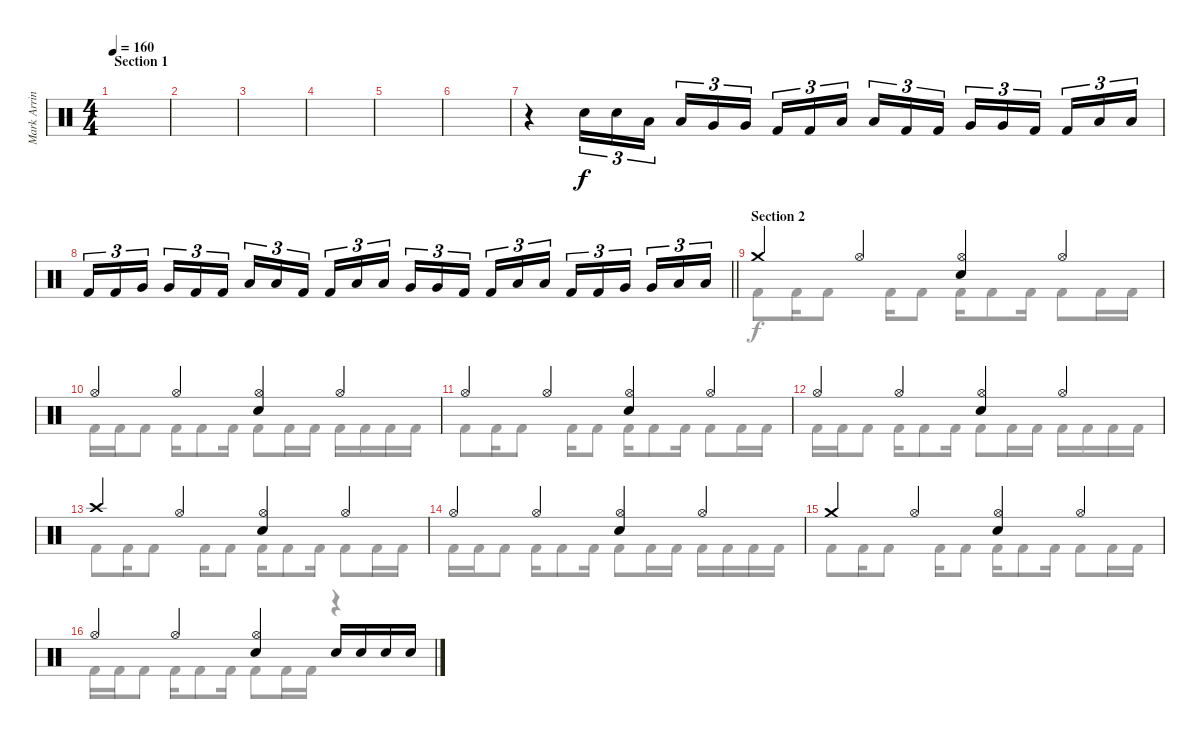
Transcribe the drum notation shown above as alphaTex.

\track ("Mark Arrington – drums" "Mark Arrin") {instrument percussion}
\staff {score}
\articulation defaults
\voice
\ts (4 4)
\section ("" "Section 1")
\tempo 160
\clef neutral
\ks c
|
|
|
|
|
|
r.4 "Electric Snare (hit)".16{tu (3 2)} "Electric Snare (hit)".16{tu (3 2)} "Low Tom (hit)".16{tu (3 2) beam splitsecondary} "Low Tom (hit)".16{tu (3 2)} "Very Low Tom (hit)".16{tu (3 2)} "Very Low Tom (hit)".16{tu (3 2)} "Kick (hit) 2".16{tu (3 2)} "Kick (hit) 2".16{tu (3 2)} "Low Tom (hit)".16{tu (3 2) beam splitsecondary} "Low Tom (hit)".16{tu (3 2)} "Kick (hit) 2".16{tu (3 2)} "Kick (hit) 2".16{tu (3 2)} "Very Low Tom (hit)".16{tu (3 2)} "Very Low Tom (hit)".16{tu (3 2)} "Kick (hit) 2".16{tu (3 2) beam splitsecondary} "Kick (hit) 2".16{tu (3 2)} "Low Tom (hit)".16{tu (3 2)} "Low Tom (hit)".16{tu (3 2)} |
\barLineRight lightlight "Kick (hit) 2".16{tu (3 2)} "Kick (hit) 2".16{tu (3 2)} "Very Low Tom (hit)".16{tu (3 2) beam splitsecondary} "Very Low Tom (hit)".16{tu (3 2)} "Kick (hit) 2".16{tu (3 2)} "Kick (hit) 2".16{tu (3 2)} "Low Tom (hit)".16{tu (3 2)} "Low Tom (hit)".16{tu (3 2)} "Kick (hit) 2".16{tu (3 2) beam splitsecondary} "Kick (hit) 2".16{tu (3 2)} "Low Tom (hit)".16{tu (3 2)} "Low Tom (hit)".16{tu (3 2)} "Very Low Tom (hit)".16{tu (3 2)} "Very Low Tom (hit)".16{tu (3 2)} "Kick (hit) 2".16{tu (3 2) beam splitsecondary} "Kick (hit) 2".16{tu (3 2)} "Low Tom (hit)".16{tu (3 2)} "Low Tom (hit)".16{tu (3 2)} "Kick (hit) 2".16{tu (3 2)} "Kick (hit) 2".16{tu (3 2)} "Very Low Tom (hit)".16{tu (3 2) beam splitsecondary} "Very Low Tom (hit)".16{tu (3 2)} "Low Floor Tom (hit)".16{tu (3 2)} "Low Floor Tom (hit)".16{tu (3 2)}
|
\section ("" "Section 2")
"Crash medium (hit)".4 "Hi-Hat (open)".4 ("Hi-Hat (open)" "Electric Snare (hit)").4 "Hi-Hat (open)".4 |
"Hi-Hat (open)".4 "Hi-Hat (open)".4 ("Hi-Hat (open)" "Electric Snare (hit)").4 "Hi-Hat (open)".4 |
"Hi-Hat (open)".4 "Hi-Hat (open)".4 ("Hi-Hat (open)" "Electric Snare (hit)").4 "Hi-Hat (open)".4 |
"Hi-Hat (open)".4 "Hi-Hat (open)".4 ("Hi-Hat (open)" "Electric Snare (hit)").4 "Hi-Hat (open)".4 |
"Crash high (hit)".4 "Hi-Hat (open)".4 ("Hi-Hat (open)" "Electric Snare (hit)").4 "Hi-Hat (open)".4 |
"Hi-Hat (open)".4 "Hi-Hat (open)".4 ("Hi-Hat (open)" "Electric Snare (hit)").4 "Hi-Hat (open)".4 |
"Crash medium (hit)".4 "Hi-Hat (open)".4 ("Hi-Hat (open)" "Electric Snare (hit)").4 "Hi-Hat (open)".4 |
"Hi-Hat (open)".4 "Hi-Hat (open)".4 ("Hi-Hat (open)" "Electric Snare (hit)").4 "Electric Snare (hit)".16 "Electric Snare (hit)".16 "Electric Snare (hit)".16 "Electric Snare (hit)".16
\voice
\clef neutral
\ottava regular
\simile none
\ks c
|
|
|
|
|
|
|
\barLineRight lightlight
|
"Kick (hit) 2".8 "Kick (hit) 2".16 "Kick (hit) 2".8 "Kick (hit) 2".16 "Kick (hit) 2".8 "Kick (hit) 2".16 "Kick (hit) 2".8 "Kick (hit) 2".16 "Kick (hit) 2".8 "Kick (hit) 2".16 "Kick (hit) 2".16 |
"Kick (hit) 2".16 "Kick (hit) 2".16 "Kick (hit) 2".8 "Kick (hit) 2".16 "Kick (hit) 2".8 "Kick (hit) 2".16 "Kick (hit) 2".8 "Kick (hit) 2".16 "Kick (hit) 2".16 "Kick (hit) 2".16 "Kick (hit) 2".16 "Kick (hit) 2".16 "Kick (hit) 2".16 |
"Kick (hit) 2".8 "Kick (hit) 2".16 "Kick (hit) 2".8 "Kick (hit) 2".16 "Kick (hit) 2".8 "Kick (hit) 2".16 "Kick (hit) 2".8 "Kick (hit) 2".16 "Kick (hit) 2".8 "Kick (hit) 2".16 "Kick (hit) 2".16 |
"Kick (hit) 2".16 "Kick (hit) 2".16 "Kick (hit) 2".8 "Kick (hit) 2".16 "Kick (hit) 2".8 "Kick (hit) 2".16 "Kick (hit) 2".8 "Kick (hit) 2".16 "Kick (hit) 2".16 "Kick (hit) 2".16 "Kick (hit) 2".16 "Kick (hit) 2".16 "Kick (hit) 2".16 |
"Kick (hit) 2".8 "Kick (hit) 2".16 "Kick (hit) 2".8 "Kick (hit) 2".16 "Kick (hit) 2".8 "Kick (hit) 2".16 "Kick (hit) 2".8 "Kick (hit) 2".16 "Kick (hit) 2".8 "Kick (hit) 2".16 "Kick (hit) 2".16 |
"Kick (hit) 2".16 "Kick (hit) 2".16 "Kick (hit) 2".8 "Kick (hit) 2".16 "Kick (hit) 2".8 "Kick (hit) 2".16 "Kick (hit) 2".8 "Kick (hit) 2".16 "Kick (hit) 2".16 "Kick (hit) 2".16 "Kick (hit) 2".16 "Kick (hit) 2".16 "Kick (hit) 2".16 |
"Kick (hit) 2".8 "Kick (hit) 2".16 "Kick (hit) 2".8 "Kick (hit) 2".16 "Kick (hit) 2".8 "Kick (hit) 2".16 "Kick (hit) 2".8 "Kick (hit) 2".16 "Kick (hit) 2".8 "Kick (hit) 2".16 "Kick (hit) 2".16 |
"Kick (hit) 2".16 "Kick (hit) 2".16 "Kick (hit) 2".8 "Kick (hit) 2".16 "Kick (hit) 2".8 "Kick (hit) 2".16 "Kick (hit) 2".8 "Kick (hit) 2".16 "Kick (hit) 2".16 r.4
